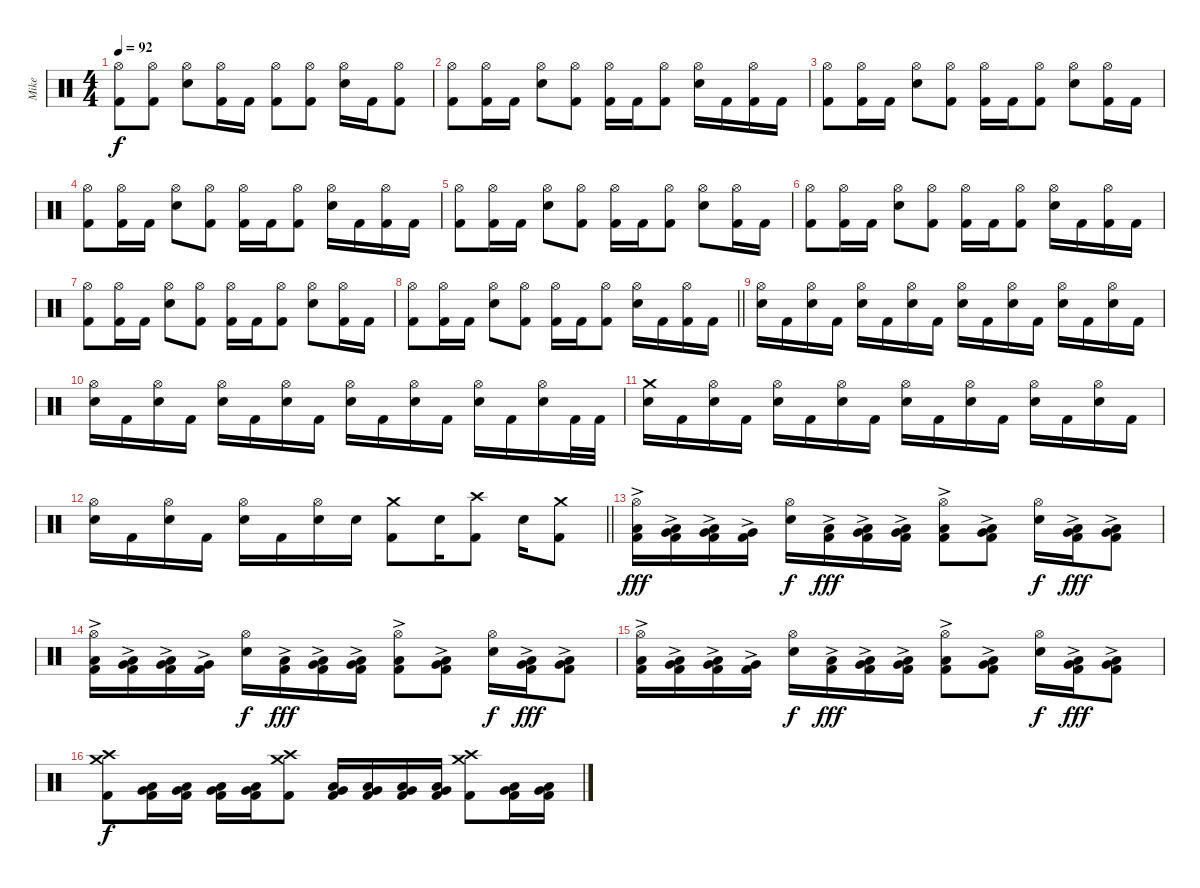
\track ("Mike" "Mike") {instrument percussion}
\staff {score}
\articulation defaults
\ts (4 4)
\tempo 92
\clef neutral
\ks c
("Hi-Hat (open)" "Kick (hit) 2").8{dy f} ("Hi-Hat (open)" "Kick (hit) 2").8 ("Hi-Hat (open)" "Snare (hit) 2").8 ("Hi-Hat (open)" "Kick (hit) 2").16 "Kick (hit) 2".16 ("Hi-Hat (open)" "Kick (hit) 2").8 ("Hi-Hat (open)" "Kick (hit) 2").8 ("Hi-Hat (open)" "Snare (hit) 2").16 "Kick (hit) 2".16 ("Hi-Hat (open)" "Kick (hit) 2").8 |
("Hi-Hat (open)" "Kick (hit) 2").8 ("Hi-Hat (open)" "Kick (hit) 2").16 "Kick (hit) 2".16 ("Hi-Hat (open)" "Snare (hit) 2").8 ("Hi-Hat (open)" "Kick (hit) 2").8 ("Hi-Hat (open)" "Kick (hit) 2").16 "Kick (hit) 2".16 ("Hi-Hat (open)" "Kick (hit) 2").8 ("Hi-Hat (open)" "Snare (hit) 2").16 "Kick (hit) 2".16 ("Hi-Hat (open)" "Kick (hit) 2").16 "Kick (hit) 2".16 |
("Hi-Hat (open)" "Kick (hit) 2").8 ("Hi-Hat (open)" "Kick (hit) 2").16 "Kick (hit) 2".16 ("Hi-Hat (open)" "Snare (hit) 2").8 ("Hi-Hat (open)" "Kick (hit) 2").8 ("Hi-Hat (open)" "Kick (hit) 2").16 "Kick (hit) 2".16 ("Hi-Hat (open)" "Kick (hit) 2").8 ("Hi-Hat (open)" "Snare (hit) 2").8 ("Hi-Hat (open)" "Kick (hit) 2").16 "Kick (hit) 2".16 |
("Hi-Hat (open)" "Kick (hit) 2").8 ("Hi-Hat (open)" "Kick (hit) 2").16 "Kick (hit) 2".16 ("Hi-Hat (open)" "Snare (hit) 2").8 ("Hi-Hat (open)" "Kick (hit) 2").8 ("Hi-Hat (open)" "Kick (hit) 2").16 "Kick (hit) 2".16 ("Hi-Hat (open)" "Kick (hit) 2").8 ("Hi-Hat (open)" "Snare (hit) 2").16 "Kick (hit) 2".16 ("Hi-Hat (open)" "Kick (hit) 2").16 "Kick (hit) 2".16 |
("Hi-Hat (open)" "Kick (hit) 2").8 ("Hi-Hat (open)" "Kick (hit) 2").16 "Kick (hit) 2".16 ("Hi-Hat (open)" "Snare (hit) 2").8 ("Hi-Hat (open)" "Kick (hit) 2").8 ("Hi-Hat (open)" "Kick (hit) 2").16 "Kick (hit) 2".16 ("Hi-Hat (open)" "Kick (hit) 2").8 ("Hi-Hat (open)" "Snare (hit) 2").8 ("Hi-Hat (open)" "Kick (hit) 2").16 "Kick (hit) 2".16 |
("Hi-Hat (open)" "Kick (hit) 2").8 ("Hi-Hat (open)" "Kick (hit) 2").16 "Kick (hit) 2".16 ("Hi-Hat (open)" "Snare (hit) 2").8 ("Hi-Hat (open)" "Kick (hit) 2").8 ("Hi-Hat (open)" "Kick (hit) 2").16 "Kick (hit) 2".16 ("Hi-Hat (open)" "Kick (hit) 2").8 ("Hi-Hat (open)" "Snare (hit) 2").16 "Kick (hit) 2".16 ("Hi-Hat (open)" "Kick (hit) 2").16 "Kick (hit) 2".16 |
("Hi-Hat (open)" "Kick (hit) 2").8 ("Hi-Hat (open)" "Kick (hit) 2").16 "Kick (hit) 2".16 ("Hi-Hat (open)" "Snare (hit) 2").8 ("Hi-Hat (open)" "Kick (hit) 2").8 ("Hi-Hat (open)" "Kick (hit) 2").16 "Kick (hit) 2".16 ("Hi-Hat (open)" "Kick (hit) 2").8 ("Hi-Hat (open)" "Snare (hit) 2").8 ("Hi-Hat (open)" "Kick (hit) 2").16 "Kick (hit) 2".16 |
\barLineRight lightlight
("Hi-Hat (open)" "Kick (hit) 2").8 ("Hi-Hat (open)" "Kick (hit) 2").16 "Kick (hit) 2".16 ("Hi-Hat (open)" "Snare (hit) 2").8 ("Hi-Hat (open)" "Kick (hit) 2").8 ("Hi-Hat (open)" "Kick (hit) 2").16 "Kick (hit) 2".16 ("Hi-Hat (open)" "Kick (hit) 2").8 ("Hi-Hat (open)" "Snare (hit) 2").16 "Kick (hit) 2".16 ("Hi-Hat (open)" "Kick (hit) 2").16 "Kick (hit) 2".16 |
("Hi-Hat (open)" "Snare (hit) 2").16 "Kick (hit) 2".16 ("Hi-Hat (open)" "Snare (hit) 2").16 "Kick (hit) 2".16 ("Hi-Hat (open)" "Snare (hit) 2").16 "Kick (hit) 2".16 ("Hi-Hat (open)" "Snare (hit) 2").16 "Kick (hit) 2".16 ("Hi-Hat (open)" "Snare (hit) 2").16 "Kick (hit) 2".16 ("Hi-Hat (open)" "Snare (hit) 2").16 "Kick (hit) 2".16 ("Hi-Hat (open)" "Snare (hit) 2").16 "Kick (hit) 2".16 ("Hi-Hat (open)" "Snare (hit) 2").16 "Kick (hit) 2".16 |
("Hi-Hat (open)" "Snare (hit) 2").16 "Kick (hit) 2".16 ("Hi-Hat (open)" "Snare (hit) 2").16 "Kick (hit) 2".16 ("Hi-Hat (open)" "Snare (hit) 2").16 "Kick (hit) 2".16 ("Hi-Hat (open)" "Snare (hit) 2").16 "Kick (hit) 2".16 ("Hi-Hat (open)" "Snare (hit) 2").16 "Kick (hit) 2".16 ("Hi-Hat (open)" "Snare (hit) 2").16 "Kick (hit) 2".16 ("Hi-Hat (open)" "Snare (hit) 2").16 "Kick (hit) 2".16 ("Hi-Hat (open)" "Snare (hit) 2").16 "Kick (hit) 2".32 "Kick (hit) 2".32 |
("Crash medium (hit)" "Snare (hit) 2").16 "Kick (hit) 2".16 ("Hi-Hat (open)" "Snare (hit) 2").16 "Kick (hit) 2".16 ("Hi-Hat (open)" "Snare (hit) 2").16 "Kick (hit) 2".16 ("Hi-Hat (open)" "Snare (hit) 2").16 "Kick (hit) 2".16 ("Hi-Hat (open)" "Snare (hit) 2").16 "Kick (hit) 2".16 ("Hi-Hat (open)" "Snare (hit) 2").16 "Kick (hit) 2".16 ("Hi-Hat (open)" "Snare (hit) 2").16 "Kick (hit) 2".16 ("Hi-Hat (open)" "Snare (hit) 2").16 "Kick (hit) 2".16 |
\barLineRight lightlight
("Hi-Hat (open)" "Snare (hit) 2").16 "Kick (hit) 2".16 ("Hi-Hat (open)" "Snare (hit) 2").16 "Kick (hit) 2".16 ("Hi-Hat (open)" "Snare (hit) 2").16 "Kick (hit) 2".16 ("Hi-Hat (open)" "Snare (hit) 2").16 "Snare (hit) 2".16 ("Crash medium (hit)" "Kick (hit) 2").8 "Snare (hit) 2".16 ("Crash high (hit)" "Kick (hit) 2").8 "Snare (hit) 2".16 ("Crash medium (hit)" "Kick (hit) 2").8 |
("Hi-Hat (open)" "Low Tom (hit)"{ac} "Kick (hit) 2").16{dy fff} ("Low Tom (hit)"{ac} "Very Low Tom (hit)"{ac} "Kick (hit) 2").16 ("Very Low Tom (hit)"{ac} "Low Floor Tom (hit)"{ac} "Kick (hit) 2").16 ("Very Low Tom (hit)"{ac} "Kick (hit) 2").16 ("Hi-Hat (open)" "Snare (hit) 2").16{dy f} ("Low Tom (hit)"{ac} "Kick (hit) 2").16{dy fff} ("Low Tom (hit)"{ac} "Very Low Tom (hit)"{ac} "Kick (hit) 2").16 ("Very Low Tom (hit)"{ac} "Low Floor Tom (hit)"{ac} "Kick (hit) 2").16 ("Hi-Hat (open)" "Low Floor Tom (hit)"{ac} "Kick (hit) 2").8 ("Very Low Tom (hit)"{ac} "Low Floor Tom (hit)"{ac} "Kick (hit) 2").8 ("Hi-Hat (open)" "Snare (hit) 2").16{dy f} ("Very Low Tom (hit)"{ac} "Low Floor Tom (hit)"{ac} "Kick (hit) 2").16{dy fff} ("Very Low Tom (hit)"{ac} "Low Tom (hit)"{ac} "Kick (hit) 2").8 |
("Hi-Hat (open)" "Low Tom (hit)"{ac} "Kick (hit) 2").16 ("Low Tom (hit)"{ac} "Very Low Tom (hit)"{ac} "Kick (hit) 2").16 ("Very Low Tom (hit)"{ac} "Low Floor Tom (hit)"{ac} "Kick (hit) 2").16 ("Very Low Tom (hit)"{ac} "Kick (hit) 2").16 ("Hi-Hat (open)" "Snare (hit) 2").16{dy f} ("Low Tom (hit)"{ac} "Kick (hit) 2").16{dy fff} ("Low Tom (hit)"{ac} "Very Low Tom (hit)"{ac} "Kick (hit) 2").16 ("Very Low Tom (hit)"{ac} "Low Floor Tom (hit)"{ac} "Kick (hit) 2").16 ("Hi-Hat (open)" "Low Floor Tom (hit)"{ac} "Kick (hit) 2").8 ("Very Low Tom (hit)"{ac} "Low Floor Tom (hit)"{ac} "Kick (hit) 2").8 ("Hi-Hat (open)" "Snare (hit) 2").16{dy f} ("Very Low Tom (hit)"{ac} "Low Floor Tom (hit)"{ac} "Kick (hit) 2").16{dy fff} ("Very Low Tom (hit)"{ac} "Low Tom (hit)"{ac} "Kick (hit) 2").8 |
("Hi-Hat (open)" "Low Tom (hit)"{ac} "Kick (hit) 2").16 ("Low Tom (hit)"{ac} "Very Low Tom (hit)"{ac} "Kick (hit) 2").16 ("Very Low Tom (hit)"{ac} "Low Floor Tom (hit)"{ac} "Kick (hit) 2").16 ("Very Low Tom (hit)"{ac} "Kick (hit) 2").16 ("Hi-Hat (open)" "Snare (hit) 2").16{dy f} ("Low Tom (hit)"{ac} "Kick (hit) 2").16{dy fff} ("Low Tom (hit)"{ac} "Very Low Tom (hit)"{ac} "Kick (hit) 2").16 ("Very Low Tom (hit)"{ac} "Low Floor Tom (hit)"{ac} "Kick (hit) 2").16 ("Hi-Hat (open)" "Low Floor Tom (hit)"{ac} "Kick (hit) 2").8 ("Very Low Tom (hit)"{ac} "Low Floor Tom (hit)"{ac} "Kick (hit) 2").8 ("Hi-Hat (open)" "Snare (hit) 2").16{dy f} ("Very Low Tom (hit)"{ac} "Low Floor Tom (hit)"{ac} "Kick (hit) 2").16{dy fff} ("Very Low Tom (hit)"{ac} "Low Tom (hit)"{ac} "Kick (hit) 2").8 |
("Crash medium (hit)" "Crash high (hit)" "Kick (hit) 2").8{dy f} ("Low Tom (hit)" "Very Low Tom (hit)" "Kick (hit) 2").16 ("Low Tom (hit)" "Very Low Tom (hit)" "Kick (hit) 2").16 ("Low Tom (hit)" "Very Low Tom (hit)" "Kick (hit) 2").16 ("Low Tom (hit)" "Very Low Tom (hit)" "Kick (hit) 2").16 ("Crash medium (hit)" "Crash high (hit)" "Kick (hit) 2").8 ("Low Tom (hit)" "Very Low Tom (hit)" "Kick (hit) 2").16 ("Low Tom (hit)" "Very Low Tom (hit)" "Kick (hit) 2").16 ("Low Tom (hit)" "Very Low Tom (hit)" "Kick (hit) 2").16 ("Low Tom (hit)" "Very Low Tom (hit)" "Kick (hit) 2").16 ("Crash medium (hit)" "Crash high (hit)" "Kick (hit) 2").8 ("Low Tom (hit)" "Very Low Tom (hit)" "Kick (hit) 2").16 ("Low Tom (hit)" "Very Low Tom (hit)" "Kick (hit) 2").16
